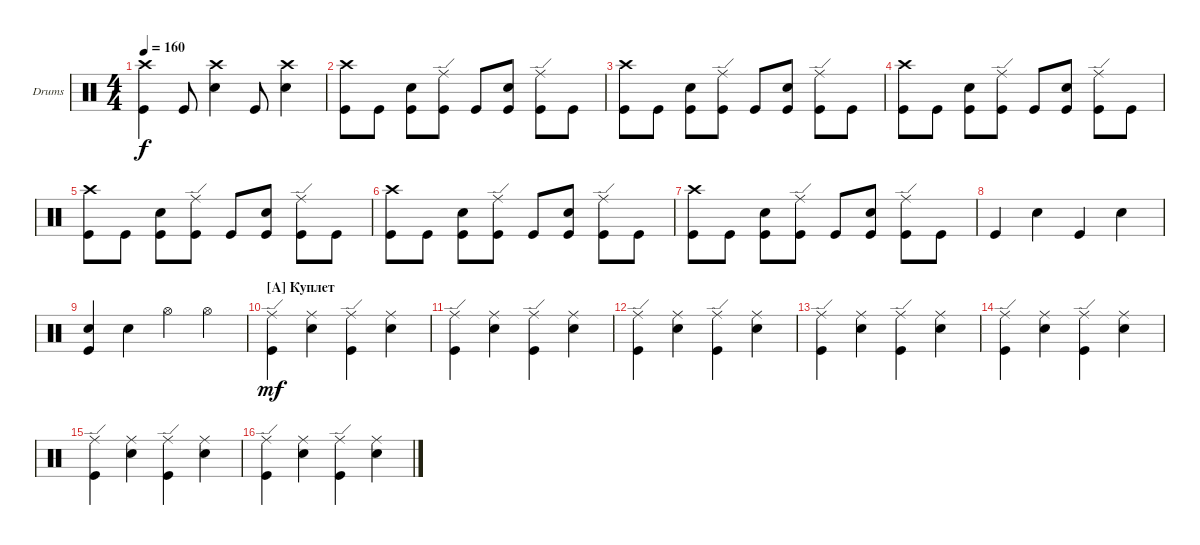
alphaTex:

\defaultSystemsLayout 4
\bracketExtendMode groupsimilarinstruments
\firstSystemTrackNameOrientation horizontal
\otherSystemsTrackNameOrientation horizontal
\track ("Drumkit" "Drums") {instrument percussion}
\staff {score}
\articulation defaults
\ts (4 4)
\tempo 160
\clef neutral
\ks c
("Kick (hit)" "Crash high (hit)").4{dy f} "Kick (hit)".8 ("Snare (hit) 2" "Crash high (hit)").4 "Kick (hit)".8 ("Snare (hit) 2" "Crash high (hit)").4 |
("Kick (hit)" "Crash high (hit)").8 "Kick (hit)".8 ("Kick (hit)" "Snare (hit) 2").8 ("Kick (hit)" "Ride (edge)").8 "Kick (hit)".8 ("Kick (hit)" "Snare (hit) 2").8 ("Kick (hit)" "Ride (edge)").8 "Kick (hit)".8 |
("Kick (hit)" "Crash high (hit)").8 "Kick (hit)".8 ("Kick (hit)" "Snare (hit) 2").8 ("Kick (hit)" "Ride (edge)").8 "Kick (hit)".8 ("Kick (hit)" "Snare (hit) 2").8 ("Kick (hit)" "Ride (edge)").8 "Kick (hit)".8 |
("Kick (hit)" "Crash high (hit)").8 "Kick (hit)".8 ("Kick (hit)" "Snare (hit) 2").8 ("Kick (hit)" "Ride (edge)").8 "Kick (hit)".8 ("Kick (hit)" "Snare (hit) 2").8 ("Kick (hit)" "Ride (edge)").8 "Kick (hit)".8 |
("Kick (hit)" "Crash high (hit)").8 "Kick (hit)".8 ("Kick (hit)" "Snare (hit) 2").8 ("Kick (hit)" "Ride (edge)").8 "Kick (hit)".8 ("Kick (hit)" "Snare (hit) 2").8 ("Kick (hit)" "Ride (edge)").8 "Kick (hit)".8 |
("Kick (hit)" "Crash high (hit)").8 "Kick (hit)".8 ("Kick (hit)" "Snare (hit) 2").8 ("Kick (hit)" "Ride (edge)").8 "Kick (hit)".8 ("Kick (hit)" "Snare (hit) 2").8 ("Kick (hit)" "Ride (edge)").8 "Kick (hit)".8 |
("Kick (hit)" "Crash high (hit)").8 "Kick (hit)".8 ("Kick (hit)" "Snare (hit) 2").8 ("Kick (hit)" "Ride (edge)").8 "Kick (hit)".8 ("Kick (hit)" "Snare (hit) 2").8 ("Kick (hit)" "Ride (edge)").8 "Kick (hit)".8 |
"Kick (hit)".4 "Snare (hit) 2".4 "Kick (hit)".4 "Snare (hit) 2".4 |
("Kick (hit)" "Snare (hit) 2").4 "Snare (hit) 2".4 "Hi-Hat (open)".4 "Hi-Hat (open)".4 |
\section ("A" "Куплет")
("Kick (hit)" "Ride (edge)").4{dy mf} ("Snare (hit) 2" "Ride (middle)").4 ("Kick (hit)" "Ride (edge)").4 ("Snare (hit) 2" "Ride (middle)").4 |
("Kick (hit)" "Ride (edge)").4 ("Snare (hit) 2" "Ride (middle)").4 ("Kick (hit)" "Ride (edge)").4 ("Snare (hit) 2" "Ride (middle)").4 |
("Kick (hit)" "Ride (edge)").4 ("Snare (hit) 2" "Ride (middle)").4 ("Kick (hit)" "Ride (edge)").4 ("Snare (hit) 2" "Ride (middle)").4 |
("Kick (hit)" "Ride (edge)").4 ("Snare (hit) 2" "Ride (middle)").4 ("Kick (hit)" "Ride (edge)").4 ("Snare (hit) 2" "Ride (middle)").4 |
("Kick (hit)" "Ride (edge)").4 ("Snare (hit) 2" "Ride (middle)").4 ("Kick (hit)" "Ride (edge)").4 ("Snare (hit) 2" "Ride (middle)").4 |
("Kick (hit)" "Ride (edge)").4 ("Snare (hit) 2" "Ride (middle)").4 ("Kick (hit)" "Ride (edge)").4 ("Snare (hit) 2" "Ride (middle)").4 |
("Kick (hit)" "Ride (edge)").4 ("Snare (hit) 2" "Ride (middle)").4 ("Kick (hit)" "Ride (edge)").4 ("Snare (hit) 2" "Ride (middle)").4
